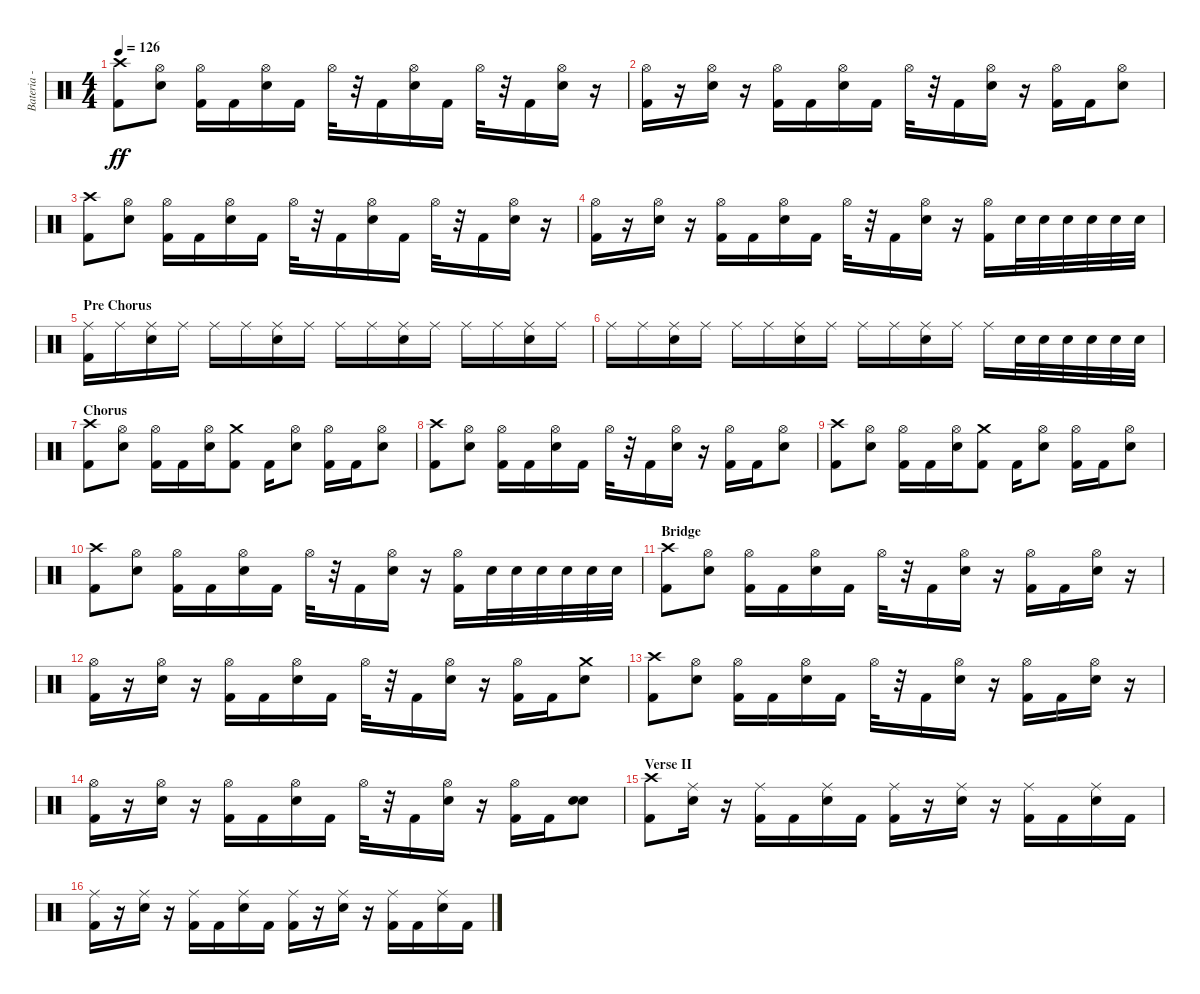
\track ("Bateria - Larzon" "Bateria - ") {instrument percussion}
\staff {score}
\articulation defaults
\ts (4 4)
\tempo 126
\clef neutral
\ks c
("Kick (hit) 2" "Crash high (hit)").8{dy ff} ("Electric Snare (hit)" "Hi-Hat (open)").8 ("Kick (hit) 2" "Hi-Hat (open)").16 "Kick (hit) 2".16 ("Electric Snare (hit)" "Hi-Hat (open)").16 "Kick (hit) 2".16 "Hi-Hat (open)".32 r.32 "Kick (hit) 2".16 ("Electric Snare (hit)" "Hi-Hat (open)").16 "Kick (hit) 2".16 "Hi-Hat (open)".32 r.32 "Kick (hit) 2".16 ("Electric Snare (hit)" "Hi-Hat (open)").16 r.16 |
("Kick (hit) 2" "Hi-Hat (open)").16 r.16 ("Electric Snare (hit)" "Hi-Hat (open)").16 r.16 ("Kick (hit) 2" "Hi-Hat (open)").16 "Kick (hit) 2".16 ("Electric Snare (hit)" "Hi-Hat (open)").16 "Kick (hit) 2".16 "Hi-Hat (open)".32 r.32 "Kick (hit) 2".16 ("Electric Snare (hit)" "Hi-Hat (open)").16 r.16 ("Kick (hit) 2" "Hi-Hat (open)").16 "Kick (hit) 2".16 ("Hi-Hat (open)" "Electric Snare (hit)").8 |
("Kick (hit) 2" "Crash high (hit)").8 ("Electric Snare (hit)" "Hi-Hat (open)").8 ("Kick (hit) 2" "Hi-Hat (open)").16 "Kick (hit) 2".16 ("Electric Snare (hit)" "Hi-Hat (open)").16 "Kick (hit) 2".16 "Hi-Hat (open)".32 r.32 "Kick (hit) 2".16 ("Electric Snare (hit)" "Hi-Hat (open)").16 "Kick (hit) 2".16 "Hi-Hat (open)".32 r.32 "Kick (hit) 2".16 ("Electric Snare (hit)" "Hi-Hat (open)").16 r.16 |
("Kick (hit) 2" "Hi-Hat (open)").16 r.16 ("Electric Snare (hit)" "Hi-Hat (open)").16 r.16 ("Kick (hit) 2" "Hi-Hat (open)").16 "Kick (hit) 2".16 ("Electric Snare (hit)" "Hi-Hat (open)").16 "Kick (hit) 2".16 "Hi-Hat (open)".32 r.32 "Kick (hit) 2".16 ("Electric Snare (hit)" "Hi-Hat (open)").16 r.16 ("Kick (hit) 2" "Hi-Hat (open)").16 "Electric Snare (hit)".32 "Electric Snare (hit)".32 "Electric Snare (hit)".32 "Electric Snare (hit)".32 "Electric Snare (hit)".32 "Electric Snare (hit)".32 |
\section ("" "Pre Chorus")
("Kick (hit) 2" "Ride (middle)").16 "Ride (middle)".16 ("Electric Snare (hit)" "Ride (middle)").16 "Ride (middle)".16 "Ride (middle)".16 "Ride (middle)".16 ("Electric Snare (hit)" "Ride (middle)").16 "Ride (middle)".16 "Ride (middle)".16 "Ride (middle)".16 ("Electric Snare (hit)" "Ride (middle)").16 "Ride (middle)".16 "Ride (middle)".16 "Ride (middle)".16 ("Electric Snare (hit)" "Ride (middle)").16 "Ride (middle)".16 |
"Ride (middle)".16 "Ride (middle)".16 ("Electric Snare (hit)" "Ride (middle)").16 "Ride (middle)".16 "Ride (middle)".16 "Ride (middle)".16 ("Electric Snare (hit)" "Ride (middle)").16 "Ride (middle)".16 "Ride (middle)".16 "Ride (middle)".16 ("Electric Snare (hit)" "Ride (middle)").16 "Ride (middle)".16 "Ride (middle)".16 "Electric Snare (hit)".32 "Electric Snare (hit)".32 "Electric Snare (hit)".32 "Electric Snare (hit)".32 "Electric Snare (hit)".32 "Electric Snare (hit)".32 |
\section ("" "Chorus")
("Kick (hit) 2" "Crash high (hit)").8 ("Electric Snare (hit)" "Hi-Hat (open)").8 ("Kick (hit) 2" "Hi-Hat (open)").16 "Kick (hit) 2".16 ("Electric Snare (hit)" "Hi-Hat (open)").16 ("Kick (hit) 2" "Crash medium (hit)").8 "Kick (hit) 2".16 ("Electric Snare (hit)" "Hi-Hat (open)").8 ("Kick (hit) 2" "Hi-Hat (open)").16 "Kick (hit) 2".16 ("Electric Snare (hit)" "Hi-Hat (open)").8 |
("Kick (hit) 2" "Crash high (hit)").8 ("Electric Snare (hit)" "Hi-Hat (open)").8 ("Kick (hit) 2" "Hi-Hat (open)").16 "Kick (hit) 2".16 ("Electric Snare (hit)" "Hi-Hat (open)").16 "Kick (hit) 2".16 "Hi-Hat (open)".32 r.32 "Kick (hit) 2".16 ("Electric Snare (hit)" "Hi-Hat (open)").16 r.16 ("Kick (hit) 2" "Hi-Hat (open)").16 "Kick (hit) 2".16 ("Electric Snare (hit)" "Hi-Hat (open)").8 |
("Kick (hit) 2" "Crash high (hit)").8 ("Electric Snare (hit)" "Hi-Hat (open)").8 ("Kick (hit) 2" "Hi-Hat (open)").16 "Kick (hit) 2".16 ("Electric Snare (hit)" "Hi-Hat (open)").16 ("Kick (hit) 2" "Crash medium (hit)").8 "Kick (hit) 2".16 ("Electric Snare (hit)" "Hi-Hat (open)").8 ("Kick (hit) 2" "Hi-Hat (open)").16 "Kick (hit) 2".16 ("Electric Snare (hit)" "Hi-Hat (open)").8 |
("Kick (hit) 2" "Crash high (hit)").8 ("Electric Snare (hit)" "Hi-Hat (open)").8 ("Kick (hit) 2" "Hi-Hat (open)").16 "Kick (hit) 2".16 ("Electric Snare (hit)" "Hi-Hat (open)").16 "Kick (hit) 2".16 "Hi-Hat (open)".32 r.32 "Kick (hit) 2".16 ("Electric Snare (hit)" "Hi-Hat (open)").16 r.16 ("Kick (hit) 2" "Hi-Hat (open)").16 "Electric Snare (hit)".32 "Electric Snare (hit)".32 "Electric Snare (hit)".32 "Electric Snare (hit)".32 "Electric Snare (hit)".32 "Electric Snare (hit)".32 |
\section ("" "Bridge")
("Kick (hit) 2" "Crash high (hit)").8 ("Electric Snare (hit)" "Hi-Hat (open)").8 ("Kick (hit) 2" "Hi-Hat (open)").16 "Kick (hit) 2".16 ("Electric Snare (hit)" "Hi-Hat (open)").16 "Kick (hit) 2".16 "Hi-Hat (open)".32 r.32 "Kick (hit) 2".16 ("Electric Snare (hit)" "Hi-Hat (open)").16 r.16 ("Kick (hit) 2" "Hi-Hat (open)").16 "Kick (hit) 2".16 ("Electric Snare (hit)" "Hi-Hat (open)").16 r.16 |
("Kick (hit) 2" "Hi-Hat (open)").16 r.16 ("Electric Snare (hit)" "Hi-Hat (open)").16 r.16 ("Kick (hit) 2" "Hi-Hat (open)").16 "Kick (hit) 2".16 ("Electric Snare (hit)" "Hi-Hat (open)").16 "Kick (hit) 2".16 "Hi-Hat (open)".32 r.32 "Kick (hit) 2".16 ("Electric Snare (hit)" "Hi-Hat (open)").16 r.16 ("Kick (hit) 2" "Hi-Hat (open)").16 "Kick (hit) 2".16 ("Electric Snare (hit)" "Crash medium (hit)").8 |
("Kick (hit) 2" "Crash high (hit)").8 ("Electric Snare (hit)" "Hi-Hat (open)").8 ("Kick (hit) 2" "Hi-Hat (open)").16 "Kick (hit) 2".16 ("Electric Snare (hit)" "Hi-Hat (open)").16 "Kick (hit) 2".16 "Hi-Hat (open)".32 r.32 "Kick (hit) 2".16 ("Electric Snare (hit)" "Hi-Hat (open)").16 r.16 ("Kick (hit) 2" "Hi-Hat (open)").16 "Kick (hit) 2".16 ("Electric Snare (hit)" "Hi-Hat (open)").16 r.16 |
("Kick (hit) 2" "Hi-Hat (open)").16 r.16 ("Electric Snare (hit)" "Hi-Hat (open)").16 r.16 ("Kick (hit) 2" "Hi-Hat (open)").16 "Kick (hit) 2".16 ("Electric Snare (hit)" "Hi-Hat (open)").16 "Kick (hit) 2".16 "Hi-Hat (open)".32 r.32 "Kick (hit) 2".16 ("Electric Snare (hit)" "Hi-Hat (open)").16 r.16 ("Kick (hit) 2" "Hi-Hat (open)").16 "Kick (hit) 2".16 ("Electric Snare (hit)" "Electric Snare (hit)").8 |
\section ("" "Verse II")
("Kick (hit) 2" "Crash high (hit)").8 ("Electric Snare (hit)" "Ride (middle)").16 r.16 ("Kick (hit) 2" "Ride (middle)").16 "Kick (hit) 2".16 ("Electric Snare (hit)" "Ride (middle)").16 "Kick (hit) 2".16 ("Kick (hit) 2" "Ride (middle)").16 r.16 ("Electric Snare (hit)" "Ride (middle)").16 r.16 ("Kick (hit) 2" "Ride (middle)").16 "Kick (hit) 2".16 ("Electric Snare (hit)" "Ride (middle)").16 "Kick (hit) 2".16 |
("Kick (hit) 2" "Ride (middle)").16 r.16 ("Electric Snare (hit)" "Ride (middle)").16 r.16 ("Kick (hit) 2" "Ride (middle)").16 "Kick (hit) 2".16 ("Electric Snare (hit)" "Ride (middle)").16 "Kick (hit) 2".16 ("Kick (hit) 2" "Ride (middle)").16 r.16 ("Electric Snare (hit)" "Ride (middle)").16 r.16 ("Kick (hit) 2" "Ride (middle)").16 "Kick (hit) 2".16 ("Electric Snare (hit)" "Ride (middle)").16 "Kick (hit) 2".16
